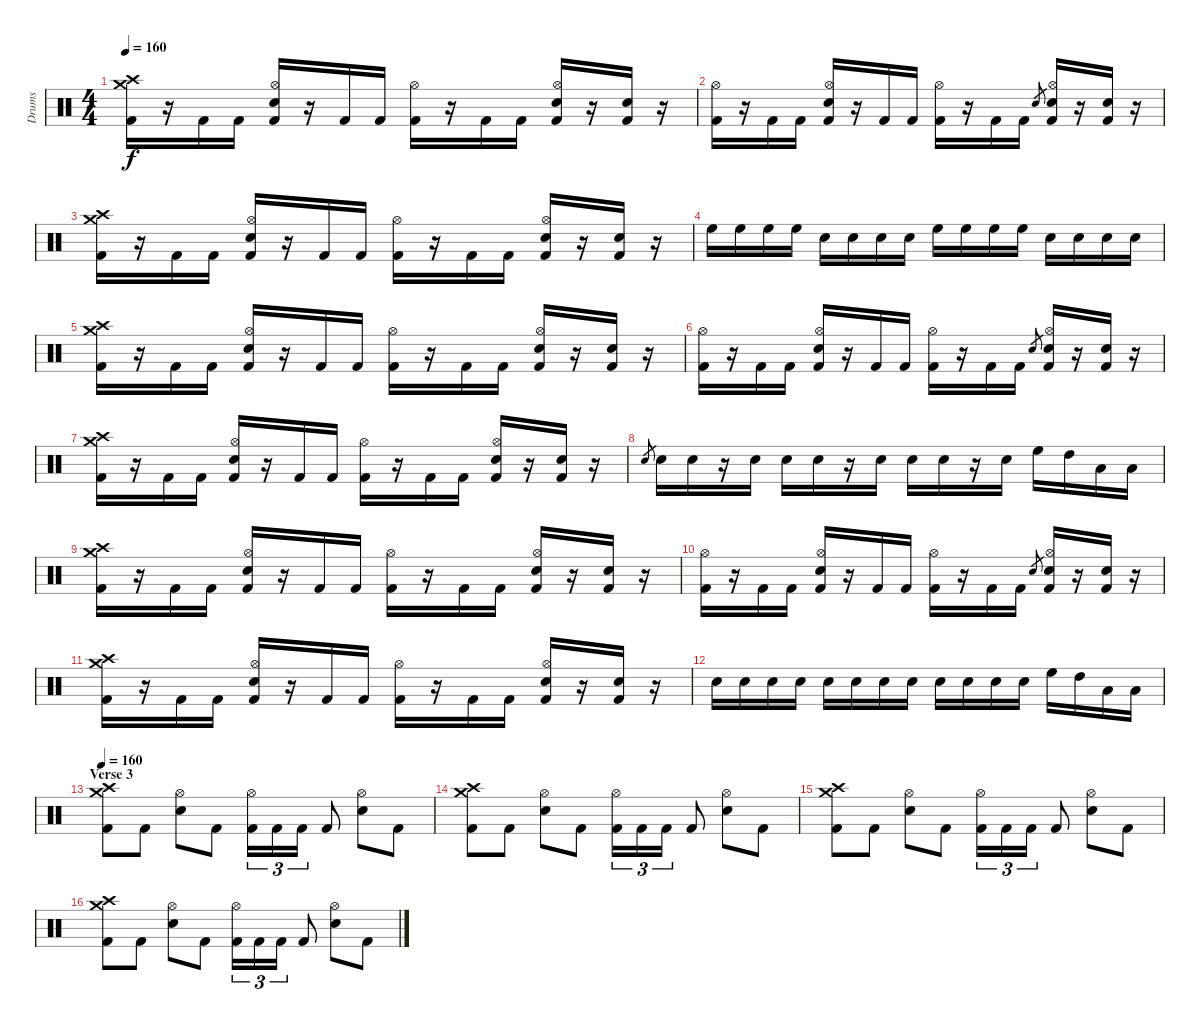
\track ("Drums" "Drums") {instrument percussion}
\staff {score}
\articulation defaults
\ts (4 4)
\tempo 160
\clef neutral
\ks c
("Crash medium (hit)" "Crash high (hit)" "Kick (hit) 2").16{dy f} r.16 "Kick (hit) 2".16 "Kick (hit) 2".16 ("Hi-Hat (open)" "Electric Snare (hit)" "Kick (hit) 2").16 r.16 "Kick (hit) 2".16 "Kick (hit) 2".16 ("Hi-Hat (open)" "Kick (hit) 2").16 r.16 "Kick (hit) 2".16 "Kick (hit) 2".16 ("Hi-Hat (open)" "Electric Snare (hit)" "Kick (hit) 2").16 r.16 ("Electric Snare (hit)" "Kick (hit) 2").16 r.16 |
("Hi-Hat (open)" "Kick (hit) 2").16 r.16 "Kick (hit) 2".16 "Kick (hit) 2".16 ("Hi-Hat (open)" "Electric Snare (hit)" "Kick (hit) 2").16 r.16 "Kick (hit) 2".16 "Kick (hit) 2".16 ("Hi-Hat (open)" "Kick (hit) 2").16 r.16 "Kick (hit) 2".16 "Kick (hit) 2".16 "Electric Snare (hit)".8{gr} ("Hi-Hat (open)" "Electric Snare (hit)" "Kick (hit) 2").16 r.16 ("Electric Snare (hit)" "Kick (hit) 2").16 r.16 |
("Crash medium (hit)" "Crash high (hit)" "Kick (hit) 2").16 r.16 "Kick (hit) 2".16 "Kick (hit) 2".16 ("Hi-Hat (open)" "Electric Snare (hit)" "Kick (hit) 2").16 r.16 "Kick (hit) 2".16 "Kick (hit) 2".16 ("Hi-Hat (open)" "Kick (hit) 2").16 r.16 "Kick (hit) 2".16 "Kick (hit) 2".16 ("Hi-Hat (open)" "Electric Snare (hit)" "Kick (hit) 2").16 r.16 ("Electric Snare (hit)" "Kick (hit) 2").16 r.16 |
"High Floor Tom (hit)".16 "High Floor Tom (hit)".16 "High Floor Tom (hit)".16 "High Floor Tom (hit)".16 "Electric Snare (hit)".16 "Electric Snare (hit)".16 "Electric Snare (hit)".16 "Electric Snare (hit)".16 "High Floor Tom (hit)".16 "High Floor Tom (hit)".16 "High Floor Tom (hit)".16 "High Floor Tom (hit)".16 "Electric Snare (hit)".16 "Electric Snare (hit)".16 "Electric Snare (hit)".16 "Electric Snare (hit)".16 |
("Crash medium (hit)" "Crash high (hit)" "Kick (hit) 2").16 r.16 "Kick (hit) 2".16 "Kick (hit) 2".16 ("Hi-Hat (open)" "Electric Snare (hit)" "Kick (hit) 2").16 r.16 "Kick (hit) 2".16 "Kick (hit) 2".16 ("Hi-Hat (open)" "Kick (hit) 2").16 r.16 "Kick (hit) 2".16 "Kick (hit) 2".16 ("Hi-Hat (open)" "Electric Snare (hit)" "Kick (hit) 2").16 r.16 ("Electric Snare (hit)" "Kick (hit) 2").16 r.16 |
("Hi-Hat (open)" "Kick (hit) 2").16 r.16 "Kick (hit) 2".16 "Kick (hit) 2".16 ("Hi-Hat (open)" "Electric Snare (hit)" "Kick (hit) 2").16 r.16 "Kick (hit) 2".16 "Kick (hit) 2".16 ("Hi-Hat (open)" "Kick (hit) 2").16 r.16 "Kick (hit) 2".16 "Kick (hit) 2".16 "Electric Snare (hit)".8{gr} ("Hi-Hat (open)" "Electric Snare (hit)" "Kick (hit) 2").16 r.16 ("Electric Snare (hit)" "Kick (hit) 2").16 r.16 |
("Crash medium (hit)" "Crash high (hit)" "Kick (hit) 2").16 r.16 "Kick (hit) 2".16 "Kick (hit) 2".16 ("Hi-Hat (open)" "Electric Snare (hit)" "Kick (hit) 2").16 r.16 "Kick (hit) 2".16 "Kick (hit) 2".16 ("Hi-Hat (open)" "Kick (hit) 2").16 r.16 "Kick (hit) 2".16 "Kick (hit) 2".16 ("Hi-Hat (open)" "Electric Snare (hit)" "Kick (hit) 2").16 r.16 ("Electric Snare (hit)" "Kick (hit) 2").16 r.16 |
"Electric Snare (hit)".8{gr} "Electric Snare (hit)".16 "Electric Snare (hit)".16 r.16 "Electric Snare (hit)".16 "Electric Snare (hit)".16 "Electric Snare (hit)".16 r.16 "Electric Snare (hit)".16 "Electric Snare (hit)".16 "Electric Snare (hit)".16 r.16 "Electric Snare (hit)".16 "High Floor Tom (hit)".16 "High Tom (hit)".16 "Low Tom (hit)".16 "Low Floor Tom (hit)".16 |
("Crash medium (hit)" "Crash high (hit)" "Kick (hit) 2").16 r.16 "Kick (hit) 2".16 "Kick (hit) 2".16 ("Hi-Hat (open)" "Electric Snare (hit)" "Kick (hit) 2").16 r.16 "Kick (hit) 2".16 "Kick (hit) 2".16 ("Hi-Hat (open)" "Kick (hit) 2").16 r.16 "Kick (hit) 2".16 "Kick (hit) 2".16 ("Hi-Hat (open)" "Electric Snare (hit)" "Kick (hit) 2").16 r.16 ("Electric Snare (hit)" "Kick (hit) 2").16 r.16 |
("Hi-Hat (open)" "Kick (hit) 2").16 r.16 "Kick (hit) 2".16 "Kick (hit) 2".16 ("Hi-Hat (open)" "Electric Snare (hit)" "Kick (hit) 2").16 r.16 "Kick (hit) 2".16 "Kick (hit) 2".16 ("Hi-Hat (open)" "Kick (hit) 2").16 r.16 "Kick (hit) 2".16 "Kick (hit) 2".16 "Electric Snare (hit)".8{gr} ("Hi-Hat (open)" "Electric Snare (hit)" "Kick (hit) 2").16 r.16 ("Electric Snare (hit)" "Kick (hit) 2").16 r.16 |
("Crash medium (hit)" "Crash high (hit)" "Kick (hit) 2").16 r.16 "Kick (hit) 2".16 "Kick (hit) 2".16 ("Hi-Hat (open)" "Electric Snare (hit)" "Kick (hit) 2").16 r.16 "Kick (hit) 2".16 "Kick (hit) 2".16 ("Hi-Hat (open)" "Kick (hit) 2").16 r.16 "Kick (hit) 2".16 "Kick (hit) 2".16 ("Hi-Hat (open)" "Electric Snare (hit)" "Kick (hit) 2").16 r.16 ("Electric Snare (hit)" "Kick (hit) 2").16 r.16 |
"Electric Snare (hit)".16 "Electric Snare (hit)".16{volume 10} "Electric Snare (hit)".16 "Electric Snare (hit)".16 "Electric Snare (hit)".16{volume 16} "Electric Snare (hit)".16{volume 10} "Electric Snare (hit)".16{volume 16} "Electric Snare (hit)".16{volume 10} "Electric Snare (hit)".16 "Electric Snare (hit)".16 "Electric Snare (hit)".16{volume 16} "Electric Snare (hit)".16 "High Floor Tom (hit)".16 "High Tom (hit)".16 "Low Tom (hit)".16 "Low Floor Tom (hit)".16 |
\section ("" "Verse 3")
\tempo 160
("Crash medium (hit)" "Crash high (hit)" "Kick (hit) 2").8 "Kick (hit) 2".8 ("Hi-Hat (open)" "Electric Snare (hit)").8 "Kick (hit) 2".8 ("Hi-Hat (open)" "Kick (hit) 2").16{tu (3 2)} "Kick (hit) 2".16{tu (3 2)} "Kick (hit) 2".16{tu (3 2)} "Kick (hit) 2".8 ("Hi-Hat (open)" "Electric Snare (hit)").8 "Kick (hit) 2".8 |
("Crash medium (hit)" "Crash high (hit)" "Kick (hit) 2").8 "Kick (hit) 2".8 ("Hi-Hat (open)" "Electric Snare (hit)").8 "Kick (hit) 2".8 ("Hi-Hat (open)" "Kick (hit) 2").16{tu (3 2)} "Kick (hit) 2".16{tu (3 2)} "Kick (hit) 2".16{tu (3 2)} "Kick (hit) 2".8 ("Hi-Hat (open)" "Electric Snare (hit)").8 "Kick (hit) 2".8 |
("Crash medium (hit)" "Crash high (hit)" "Kick (hit) 2").8 "Kick (hit) 2".8 ("Hi-Hat (open)" "Electric Snare (hit)").8 "Kick (hit) 2".8 ("Hi-Hat (open)" "Kick (hit) 2").16{tu (3 2)} "Kick (hit) 2".16{tu (3 2)} "Kick (hit) 2".16{tu (3 2)} "Kick (hit) 2".8 ("Hi-Hat (open)" "Electric Snare (hit)").8 "Kick (hit) 2".8 |
("Crash medium (hit)" "Crash high (hit)" "Kick (hit) 2").8 "Kick (hit) 2".8 ("Hi-Hat (open)" "Electric Snare (hit)").8 "Kick (hit) 2".8 ("Hi-Hat (open)" "Kick (hit) 2").16{tu (3 2)} "Kick (hit) 2".16{tu (3 2)} "Kick (hit) 2".16{tu (3 2)} "Kick (hit) 2".8 ("Hi-Hat (open)" "Electric Snare (hit)").8 "Kick (hit) 2".8
